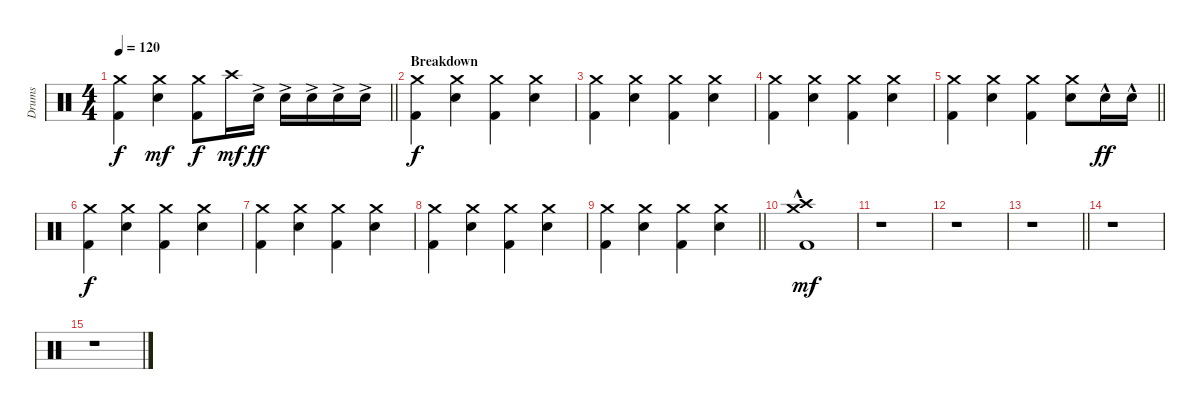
\track ("Drums" "Drums") {instrument percussion}
\staff {score}
\articulation defaults
\ts (4 4)
\tempo 120
\clef neutral
\barLineRight lightlight
\ks c
("Crash medium (hit)" "Kick (hit) 2").4{dy f} ("Crash medium (hit)" "Electric Snare (hit)").4{dy mf} ("Crash medium (hit)" "Kick (hit) 2").8{dy f} "Crash high (hit)".16{dy mf} "Electric Snare (hit)"{ac}.16{dy ff} "Electric Snare (hit)"{ac}.16 "Electric Snare (hit)"{ac}.16 "Electric Snare (hit)"{ac}.16 "Electric Snare (hit)"{ac}.16 |
\section ("" "Breakdown")
("Kick (hit) 2" "Crash medium (hit)").4{dy f} ("Electric Snare (hit)" "Crash medium (hit)").4 ("Kick (hit) 2" "Crash medium (hit)").4 ("Electric Snare (hit)" "Crash medium (hit)").4 |
("Kick (hit) 2" "Crash medium (hit)").4 ("Electric Snare (hit)" "Crash medium (hit)").4 ("Kick (hit) 2" "Crash medium (hit)").4 ("Electric Snare (hit)" "Crash medium (hit)").4 |
("Kick (hit) 2" "Crash medium (hit)").4 ("Electric Snare (hit)" "Crash medium (hit)").4 ("Kick (hit) 2" "Crash medium (hit)").4 ("Electric Snare (hit)" "Crash medium (hit)").4 |
\barLineRight lightlight
("Kick (hit) 2" "Crash medium (hit)").4 ("Electric Snare (hit)" "Crash medium (hit)").4 ("Kick (hit) 2" "Crash medium (hit)").4 ("Electric Snare (hit)" "Crash medium (hit)").8 "Electric Snare (hit)"{hac}.16{dy ff} "Electric Snare (hit)"{hac}.16 |
("Kick (hit) 2" "Crash medium (hit)").4{dy f} ("Electric Snare (hit)" "Crash medium (hit)").4 ("Kick (hit) 2" "Crash medium (hit)").4 ("Electric Snare (hit)" "Crash medium (hit)").4 |
("Kick (hit) 2" "Crash medium (hit)").4 ("Electric Snare (hit)" "Crash medium (hit)").4 ("Kick (hit) 2" "Crash medium (hit)").4 ("Electric Snare (hit)" "Crash medium (hit)").4 |
("Kick (hit) 2" "Crash medium (hit)").4 ("Electric Snare (hit)" "Crash medium (hit)").4 ("Kick (hit) 2" "Crash medium (hit)").4 ("Electric Snare (hit)" "Crash medium (hit)").4 |
\barLineRight lightlight
("Kick (hit) 2" "Crash medium (hit)").4 ("Electric Snare (hit)" "Crash medium (hit)").4 ("Kick (hit) 2" "Crash medium (hit)").4 ("Electric Snare (hit)" "Crash medium (hit)").4 |
("Kick (hit) 2" "Crash medium (hit)"{hac} "Crash high (hit)").1{dy mf} |
r.1 |
r.1 |
\barLineRight lightlight
r.1 |
r.1 |
r.1
